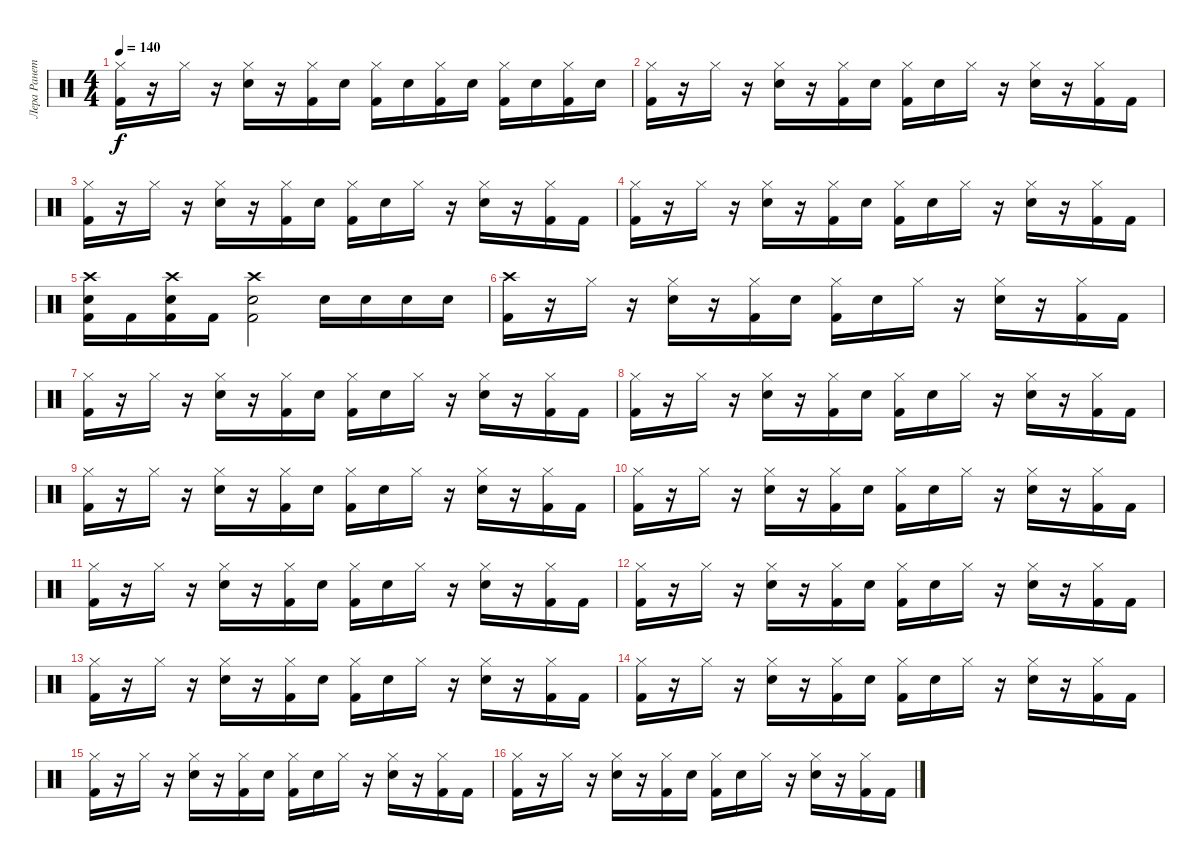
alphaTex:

\track ("Лера Ранетка" "Лера Ранет") {instrument percussion}
\staff {score}
\articulation defaults
\ts (4 4)
\tempo 140
\clef neutral
\ks c
("Hi-Hat (closed)" "Kick (hit) 2").16{dy f} r.16 "Hi-Hat (closed)".16 r.16 ("Hi-Hat (closed)" "Snare (hit) 2").16 r.16 ("Hi-Hat (closed)" "Kick (hit) 2").16 "Snare (hit) 2".16 ("Hi-Hat (closed)" "Kick (hit) 2").16 "Snare (hit) 2".16 ("Hi-Hat (closed)" "Kick (hit) 2").16 "Snare (hit) 2".16 ("Hi-Hat (closed)" "Kick (hit) 2").16 "Snare (hit) 2".16 ("Hi-Hat (closed)" "Kick (hit) 2").16 "Snare (hit) 2".16 |
("Hi-Hat (closed)" "Kick (hit) 2").16 r.16 "Hi-Hat (closed)".16 r.16 ("Hi-Hat (closed)" "Snare (hit) 2").16 r.16 ("Hi-Hat (closed)" "Kick (hit) 2").16 "Snare (hit) 2".16 ("Hi-Hat (closed)" "Kick (hit) 2").16 "Snare (hit) 2".16 "Hi-Hat (closed)".16 r.16 ("Hi-Hat (closed)" "Snare (hit) 2").16 r.16 ("Hi-Hat (closed)" "Kick (hit) 2").16 "Kick (hit) 2".16 |
("Hi-Hat (closed)" "Kick (hit) 2").16 r.16 "Hi-Hat (closed)".16 r.16 ("Hi-Hat (closed)" "Snare (hit) 2").16 r.16 ("Hi-Hat (closed)" "Kick (hit) 2").16 "Snare (hit) 2".16 ("Hi-Hat (closed)" "Kick (hit) 2").16 "Snare (hit) 2".16 "Hi-Hat (closed)".16 r.16 ("Hi-Hat (closed)" "Snare (hit) 2").16 r.16 ("Hi-Hat (closed)" "Kick (hit) 2").16 "Kick (hit) 2".16 |
("Hi-Hat (closed)" "Kick (hit) 2").16 r.16 "Hi-Hat (closed)".16 r.16 ("Hi-Hat (closed)" "Snare (hit) 2").16 r.16 ("Hi-Hat (closed)" "Kick (hit) 2").16 "Snare (hit) 2".16 ("Hi-Hat (closed)" "Kick (hit) 2").16 "Snare (hit) 2".16 "Hi-Hat (closed)".16 r.16 ("Hi-Hat (closed)" "Snare (hit) 2").16 r.16 ("Hi-Hat (closed)" "Kick (hit) 2").16 "Kick (hit) 2".16 |
("Snare (hit) 2" "Kick (hit) 2" "Crash high (hit)").16 "Kick (hit) 2".16 ("Snare (hit) 2" "Kick (hit) 2" "Crash high (hit)").16 "Kick (hit) 2".16 ("Snare (hit) 2" "Kick (hit) 2" "Crash high (hit)").2 "Snare (hit) 2".16 "Snare (hit) 2".16 "Snare (hit) 2".16 "Snare (hit) 2".16 |
("Crash high (hit)" "Kick (hit) 2").16 r.16 "Hi-Hat (closed)".16 r.16 ("Hi-Hat (closed)" "Snare (hit) 2").16 r.16 ("Hi-Hat (closed)" "Kick (hit) 2").16 "Snare (hit) 2".16 ("Hi-Hat (closed)" "Kick (hit) 2").16 "Snare (hit) 2".16 "Hi-Hat (closed)".16 r.16 ("Hi-Hat (closed)" "Snare (hit) 2").16 r.16 ("Hi-Hat (closed)" "Kick (hit) 2").16 "Kick (hit) 2".16 |
("Hi-Hat (closed)" "Kick (hit) 2").16 r.16 "Hi-Hat (closed)".16 r.16 ("Hi-Hat (closed)" "Snare (hit) 2").16 r.16 ("Hi-Hat (closed)" "Kick (hit) 2").16 "Snare (hit) 2".16 ("Hi-Hat (closed)" "Kick (hit) 2").16 "Snare (hit) 2".16 "Hi-Hat (closed)".16 r.16 ("Hi-Hat (closed)" "Snare (hit) 2").16 r.16 ("Hi-Hat (closed)" "Kick (hit) 2").16 "Kick (hit) 2".16 |
("Hi-Hat (closed)" "Kick (hit) 2").16 r.16 "Hi-Hat (closed)".16 r.16 ("Hi-Hat (closed)" "Snare (hit) 2").16 r.16 ("Hi-Hat (closed)" "Kick (hit) 2").16 "Snare (hit) 2".16 ("Hi-Hat (closed)" "Kick (hit) 2").16 "Snare (hit) 2".16 "Hi-Hat (closed)".16 r.16 ("Hi-Hat (closed)" "Snare (hit) 2").16 r.16 ("Hi-Hat (closed)" "Kick (hit) 2").16 "Kick (hit) 2".16 |
("Hi-Hat (closed)" "Kick (hit) 2").16 r.16 "Hi-Hat (closed)".16 r.16 ("Hi-Hat (closed)" "Snare (hit) 2").16 r.16 ("Hi-Hat (closed)" "Kick (hit) 2").16 "Snare (hit) 2".16 ("Hi-Hat (closed)" "Kick (hit) 2").16 "Snare (hit) 2".16 "Hi-Hat (closed)".16 r.16 ("Hi-Hat (closed)" "Snare (hit) 2").16 r.16 ("Hi-Hat (closed)" "Kick (hit) 2").16 "Kick (hit) 2".16 |
("Hi-Hat (closed)" "Kick (hit) 2").16 r.16 "Hi-Hat (closed)".16 r.16 ("Hi-Hat (closed)" "Snare (hit) 2").16 r.16 ("Hi-Hat (closed)" "Kick (hit) 2").16 "Snare (hit) 2".16 ("Hi-Hat (closed)" "Kick (hit) 2").16 "Snare (hit) 2".16 "Hi-Hat (closed)".16 r.16 ("Hi-Hat (closed)" "Snare (hit) 2").16 r.16 ("Hi-Hat (closed)" "Kick (hit) 2").16 "Kick (hit) 2".16 |
("Hi-Hat (closed)" "Kick (hit) 2").16 r.16 "Hi-Hat (closed)".16 r.16 ("Hi-Hat (closed)" "Snare (hit) 2").16 r.16 ("Hi-Hat (closed)" "Kick (hit) 2").16 "Snare (hit) 2".16 ("Hi-Hat (closed)" "Kick (hit) 2").16 "Snare (hit) 2".16 "Hi-Hat (closed)".16 r.16 ("Hi-Hat (closed)" "Snare (hit) 2").16 r.16 ("Hi-Hat (closed)" "Kick (hit) 2").16 "Kick (hit) 2".16 |
("Hi-Hat (closed)" "Kick (hit) 2").16 r.16 "Hi-Hat (closed)".16 r.16 ("Hi-Hat (closed)" "Snare (hit) 2").16 r.16 ("Hi-Hat (closed)" "Kick (hit) 2").16 "Snare (hit) 2".16 ("Hi-Hat (closed)" "Kick (hit) 2").16 "Snare (hit) 2".16 "Hi-Hat (closed)".16 r.16 ("Hi-Hat (closed)" "Snare (hit) 2").16 r.16 ("Hi-Hat (closed)" "Kick (hit) 2").16 "Kick (hit) 2".16 |
("Hi-Hat (closed)" "Kick (hit) 2").16 r.16 "Hi-Hat (closed)".16 r.16 ("Hi-Hat (closed)" "Snare (hit) 2").16 r.16 ("Hi-Hat (closed)" "Kick (hit) 2").16 "Snare (hit) 2".16 ("Hi-Hat (closed)" "Kick (hit) 2").16 "Snare (hit) 2".16 "Hi-Hat (closed)".16 r.16 ("Hi-Hat (closed)" "Snare (hit) 2").16 r.16 ("Hi-Hat (closed)" "Kick (hit) 2").16 "Kick (hit) 2".16 |
("Hi-Hat (closed)" "Kick (hit) 2").16 r.16 "Hi-Hat (closed)".16 r.16 ("Hi-Hat (closed)" "Snare (hit) 2").16 r.16 ("Hi-Hat (closed)" "Kick (hit) 2").16 "Snare (hit) 2".16 ("Hi-Hat (closed)" "Kick (hit) 2").16 "Snare (hit) 2".16 "Hi-Hat (closed)".16 r.16 ("Hi-Hat (closed)" "Snare (hit) 2").16 r.16 ("Hi-Hat (closed)" "Kick (hit) 2").16 "Kick (hit) 2".16 |
("Hi-Hat (closed)" "Kick (hit) 2").16 r.16 "Hi-Hat (closed)".16 r.16 ("Hi-Hat (closed)" "Snare (hit) 2").16 r.16 ("Hi-Hat (closed)" "Kick (hit) 2").16 "Snare (hit) 2".16 ("Hi-Hat (closed)" "Kick (hit) 2").16 "Snare (hit) 2".16 "Hi-Hat (closed)".16 r.16 ("Hi-Hat (closed)" "Snare (hit) 2").16 r.16 ("Hi-Hat (closed)" "Kick (hit) 2").16 "Kick (hit) 2".16 |
("Hi-Hat (closed)" "Kick (hit) 2").16 r.16 "Hi-Hat (closed)".16 r.16 ("Hi-Hat (closed)" "Snare (hit) 2").16 r.16 ("Hi-Hat (closed)" "Kick (hit) 2").16 "Snare (hit) 2".16 ("Hi-Hat (closed)" "Kick (hit) 2").16 "Snare (hit) 2".16 "Hi-Hat (closed)".16 r.16 ("Hi-Hat (closed)" "Snare (hit) 2").16 r.16 ("Hi-Hat (closed)" "Kick (hit) 2").16 "Kick (hit) 2".16
